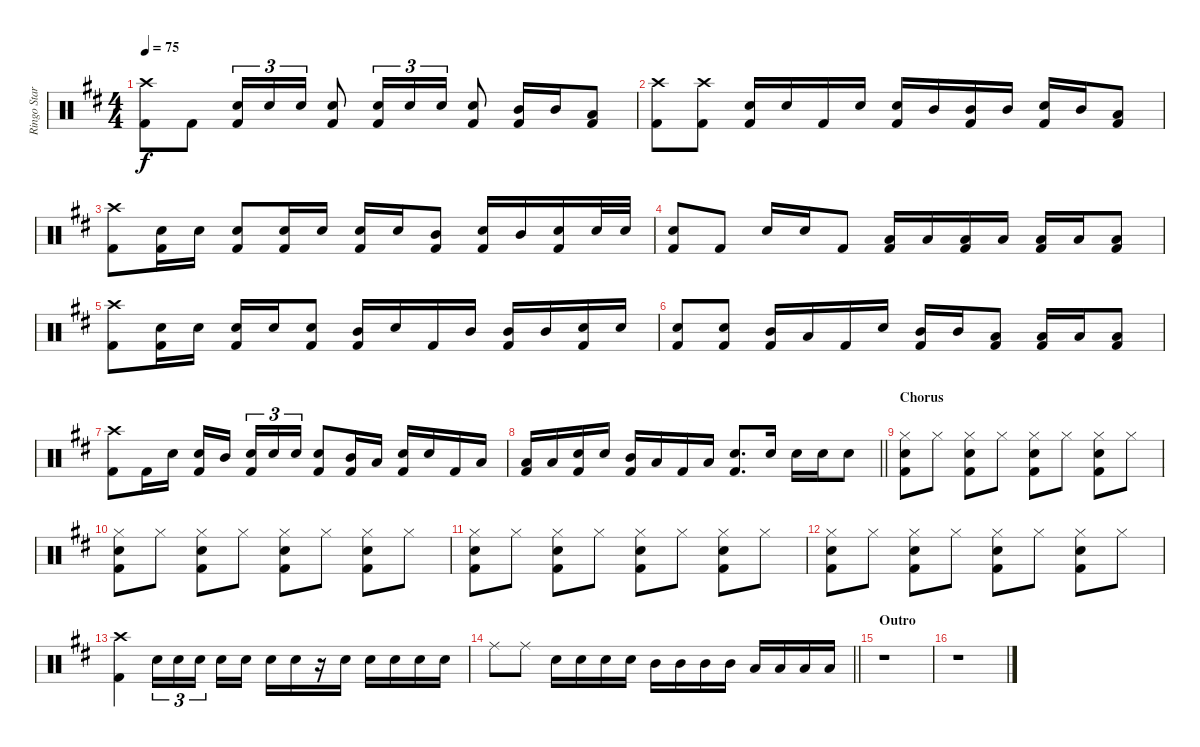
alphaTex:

\track ("Ringo Star' drums" "Ringo Star") {instrument percussion}
\staff {score}
\articulation defaults
\ts (4 4)
\tempo 75
\clef neutral
\ks d
("Crash high (hit)" "Kick (hit) 2").8{dy f} "Kick (hit) 2".8 ("Snare (hit) 2" "Kick (hit) 2").16{tu (3 2)} "Snare (hit) 2".16{tu (3 2)} "Snare (hit) 2".16{tu (3 2)} ("Snare (hit) 2" "Kick (hit) 2").8 ("Snare (hit) 2" "Kick (hit) 2").16{tu (3 2)} "Snare (hit) 2".16{tu (3 2)} "Snare (hit) 2".16{tu (3 2)} ("Snare (hit) 2" "Kick (hit) 2").8 ("Mid Tom (hit)" "Kick (hit) 2").16 "Mid Tom (hit)".16 ("Low Tom (hit)" "Kick (hit) 2").8 |
("Crash high (hit)" "Kick (hit) 2").8 ("Crash high (hit)" "Kick (hit) 2").8 ("Snare (hit) 2" "Kick (hit) 2").16 "Snare (hit) 2".16 "Kick (hit) 2".16 "Snare (hit) 2".16 ("Snare (hit) 2" "Kick (hit) 2").16 "Mid Tom (hit)".16 ("Mid Tom (hit)" "Kick (hit) 2").16 "Mid Tom (hit)".16 ("Snare (hit) 2" "Kick (hit) 2").16 "Mid Tom (hit)".16 ("Low Tom (hit)" "Kick (hit) 2").8 |
("Crash high (hit)" "Kick (hit) 2").8 ("Snare (hit) 2" "Kick (hit) 2").16 "Snare (hit) 2".16 ("Snare (hit) 2" "Kick (hit) 2").8 ("Snare (hit) 2" "Kick (hit) 2").16 "Snare (hit) 2".16 ("Snare (hit) 2" "Kick (hit) 2").16 "Snare (hit) 2".16 ("Mid Tom (hit)" "Kick (hit) 2").8 ("Snare (hit) 2" "Kick (hit) 2").16 "Mid Tom (hit)".16 ("Snare (hit) 2" "Kick (hit) 2").16 "Snare (hit) 2".32 "Snare (hit) 2".32 |
("Snare (hit) 2" "Kick (hit) 2").8 "Kick (hit) 2".8 "Snare (hit) 2".16 "Snare (hit) 2".16 "Kick (hit) 2".8 ("Low Tom (hit)" "Kick (hit) 2").16 "Low Tom (hit)".16 ("Low Tom (hit)" "Kick (hit) 2").16 "Low Tom (hit)".16 ("Low Floor Tom (hit)" "Kick (hit) 2").16 "Low Floor Tom (hit)".16 ("Low Floor Tom (hit)" "Kick (hit) 2").8 |
("Crash high (hit)" "Kick (hit) 2").8 ("Snare (hit) 2" "Kick (hit) 2").16 "Snare (hit) 2".16 ("Snare (hit) 2" "Kick (hit) 2").16 "Snare (hit) 2".16 ("Snare (hit) 2" "Kick (hit) 2").8 ("Mid Tom (hit)" "Kick (hit) 2").16 "Snare (hit) 2".16 "Kick (hit) 2".16 "Mid Tom (hit)".16 ("Mid Tom (hit)" "Kick (hit) 2").16 "Mid Tom (hit)".16 ("Snare (hit) 2" "Kick (hit) 2").16 "Snare (hit) 2".16 |
("Snare (hit) 2" "Kick (hit) 2").8 ("Snare (hit) 2" "Kick (hit) 2").8 ("Mid Tom (hit)" "Kick (hit) 2").16 "Low Tom (hit)".16 "Kick (hit) 2".16 "Snare (hit) 2".16 ("Mid Tom (hit)" "Kick (hit) 2").16 "Mid Tom (hit)".16 ("Low Tom (hit)" "Kick (hit) 2").8 ("Low Floor Tom (hit)" "Kick (hit) 2").16 "Low Floor Tom (hit)".16 ("Low Floor Tom (hit)" "Kick (hit) 2").8 |
("Crash high (hit)" "Kick (hit) 2").8 "Kick (hit) 2".16 "Snare (hit) 2".16 ("Snare (hit) 2" "Kick (hit) 2").16 "Mid Tom (hit)".16{beam splitsecondary} ("Snare (hit) 2" "Kick (hit) 2").16{tu (3 2)} "Snare (hit) 2".16{tu (3 2)} "Snare (hit) 2".16{tu (3 2)} ("Snare (hit) 2" "Kick (hit) 2").8 ("Mid Tom (hit)" "Kick (hit) 2").16 "Low Tom (hit)".16 ("Snare (hit) 2" "Kick (hit) 2").16 "Snare (hit) 2".16 "Kick (hit) 2".16 "Low Floor Tom (hit)".16 |
\barLineRight lightlight
("Low Floor Tom (hit)" "Kick (hit) 2").16 "Low Floor Tom (hit)".16 ("Snare (hit) 2" "Kick (hit) 2").16 "Snare (hit) 2".16 ("Mid Tom (hit)" "Kick (hit) 2").16 "Low Tom (hit)".16 "Kick (hit) 2".16 "Low Floor Tom (hit)".16 ("Snare (hit) 2" "Kick (hit) 2").8{d} "Snare (hit) 2".16 "Snare (hit) 2".16 "Snare (hit) 2".16 "Snare (hit) 2".8 |
\section ("" "Chorus")
("Hi-Hat (closed)" "Snare (hit) 2" "Kick (hit) 2").8 "Hi-Hat (closed)".8 ("Hi-Hat (closed)" "Snare (hit) 2" "Kick (hit) 2").8 "Hi-Hat (closed)".8 ("Hi-Hat (closed)" "Snare (hit) 2" "Kick (hit) 2").8 "Hi-Hat (closed)".8 ("Hi-Hat (closed)" "Snare (hit) 2" "Kick (hit) 2").8 "Hi-Hat (closed)".8 |
("Hi-Hat (closed)" "Snare (hit) 2" "Kick (hit) 2").8 "Hi-Hat (closed)".8 ("Hi-Hat (closed)" "Snare (hit) 2" "Kick (hit) 2").8 "Hi-Hat (closed)".8 ("Hi-Hat (closed)" "Snare (hit) 2" "Kick (hit) 2").8 "Hi-Hat (closed)".8 ("Hi-Hat (closed)" "Snare (hit) 2" "Kick (hit) 2").8 "Hi-Hat (closed)".8 |
("Hi-Hat (closed)" "Snare (hit) 2" "Kick (hit) 2").8 "Hi-Hat (closed)".8 ("Hi-Hat (closed)" "Snare (hit) 2" "Kick (hit) 2").8 "Hi-Hat (closed)".8 ("Hi-Hat (closed)" "Snare (hit) 2" "Kick (hit) 2").8 "Hi-Hat (closed)".8 ("Hi-Hat (closed)" "Snare (hit) 2" "Kick (hit) 2").8 "Hi-Hat (closed)".8 |
("Hi-Hat (closed)" "Snare (hit) 2" "Kick (hit) 2").8 "Hi-Hat (closed)".8 ("Hi-Hat (closed)" "Snare (hit) 2" "Kick (hit) 2").8 "Hi-Hat (closed)".8 ("Hi-Hat (closed)" "Snare (hit) 2" "Kick (hit) 2").8 "Hi-Hat (closed)".8 ("Hi-Hat (closed)" "Snare (hit) 2" "Kick (hit) 2").8 "Hi-Hat (closed)".8 |
("Crash high (hit)" "Kick (hit) 2").4 "Snare (hit) 2".16{tu (3 2)} "Snare (hit) 2".16{tu (3 2)} "Snare (hit) 2".16{tu (3 2) beam splitsecondary} "Snare (hit) 2".16 "Snare (hit) 2".16 "Snare (hit) 2".16 "Snare (hit) 2".16 r.16 "Snare (hit) 2".16 "Snare (hit) 2".16 "Snare (hit) 2".16 "Snare (hit) 2".16 "Snare (hit) 2".16 |
\barLineRight lightlight "Ride (middle)".8 "Ride (middle)".8 "Snare (hit) 2".16 "Snare (hit) 2".16 "Snare (hit) 2".16 "Snare (hit) 2".16 "Mid Tom (hit)".16 "Mid Tom (hit)".16 "Mid Tom (hit)".16 "Mid Tom (hit)".16 "Low Tom (hit)".16 "Low Tom (hit)".16 "Low Tom (hit)".16 "Low Tom (hit)".16
|
\section ("" "Outro")
r.1 |
r.1
